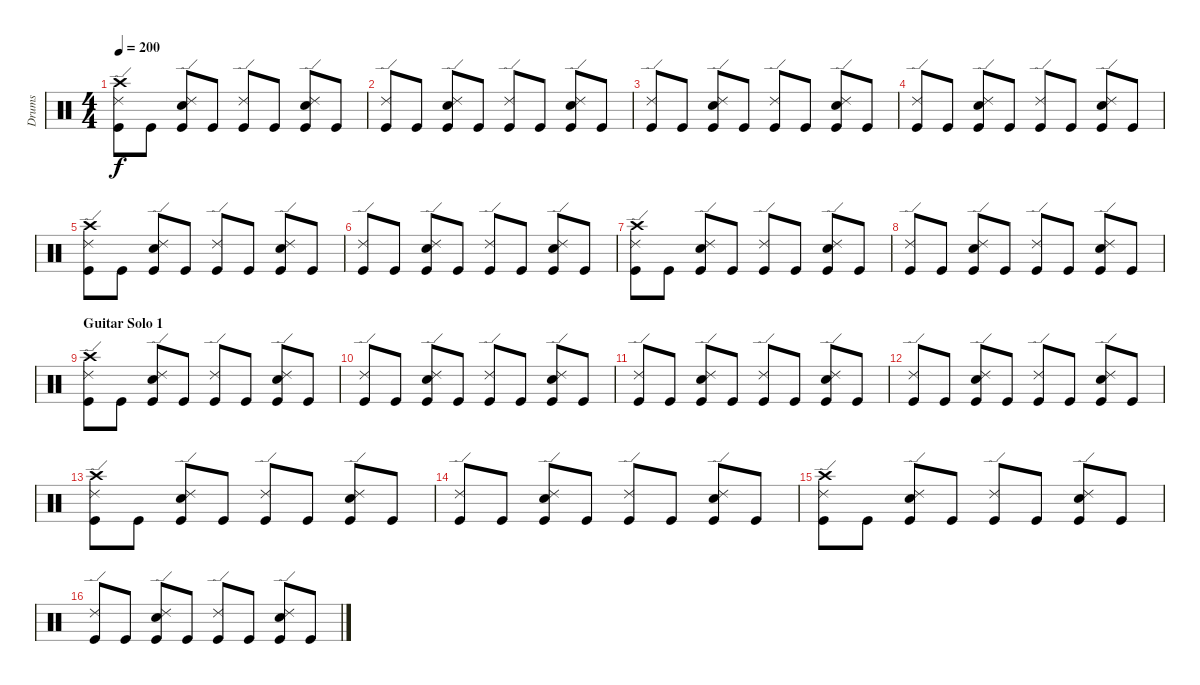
\track ("Drums" "Drums") {instrument percussion}
\staff {score}
\articulation defaults
\ts (4 4)
\tempo 200
\clef neutral
\ks c
("Crash high (hit)" "Ride (edge) 2" "Kick (hit)").8{dy f} "Kick (hit)".8 ("Ride (edge) 2" "Snare (hit) 2" "Kick (hit)").8 "Kick (hit)".8 ("Ride (edge) 2" "Kick (hit)").8 "Kick (hit)".8 ("Ride (edge) 2" "Snare (hit) 2" "Kick (hit)").8 "Kick (hit)".8 |
("Ride (edge) 2" "Kick (hit)").8 "Kick (hit)".8 ("Ride (edge) 2" "Snare (hit) 2" "Kick (hit)").8 "Kick (hit)".8 ("Ride (edge) 2" "Kick (hit)").8 "Kick (hit)".8 ("Ride (edge) 2" "Snare (hit) 2" "Kick (hit)").8 "Kick (hit)".8 |
("Ride (edge) 2" "Kick (hit)").8 "Kick (hit)".8 ("Ride (edge) 2" "Snare (hit) 2" "Kick (hit)").8 "Kick (hit)".8 ("Ride (edge) 2" "Kick (hit)").8 "Kick (hit)".8 ("Ride (edge) 2" "Snare (hit) 2" "Kick (hit)").8 "Kick (hit)".8 |
("Ride (edge) 2" "Kick (hit)").8 "Kick (hit)".8 ("Ride (edge) 2" "Snare (hit) 2" "Kick (hit)").8 "Kick (hit)".8 ("Ride (edge) 2" "Kick (hit)").8 "Kick (hit)".8 ("Ride (edge) 2" "Snare (hit) 2" "Kick (hit)").8 "Kick (hit)".8 |
("Crash high (hit)" "Ride (edge) 2" "Kick (hit)").8 "Kick (hit)".8 ("Ride (edge) 2" "Snare (hit) 2" "Kick (hit)").8 "Kick (hit)".8 ("Ride (edge) 2" "Kick (hit)").8 "Kick (hit)".8 ("Ride (edge) 2" "Snare (hit) 2" "Kick (hit)").8 "Kick (hit)".8 |
("Ride (edge) 2" "Kick (hit)").8 "Kick (hit)".8 ("Ride (edge) 2" "Snare (hit) 2" "Kick (hit)").8 "Kick (hit)".8 ("Ride (edge) 2" "Kick (hit)").8 "Kick (hit)".8 ("Ride (edge) 2" "Snare (hit) 2" "Kick (hit)").8 "Kick (hit)".8 |
("Crash high (hit)" "Ride (edge) 2" "Kick (hit)").8 "Kick (hit)".8 ("Ride (edge) 2" "Snare (hit) 2" "Kick (hit)").8 "Kick (hit)".8 ("Ride (edge) 2" "Kick (hit)").8 "Kick (hit)".8 ("Ride (edge) 2" "Snare (hit) 2" "Kick (hit)").8 "Kick (hit)".8 |
("Ride (edge) 2" "Kick (hit)").8 "Kick (hit)".8 ("Ride (edge) 2" "Snare (hit) 2" "Kick (hit)").8 "Kick (hit)".8 ("Ride (edge) 2" "Kick (hit)").8 "Kick (hit)".8 ("Ride (edge) 2" "Snare (hit) 2" "Kick (hit)").8 "Kick (hit)".8 |
\section ("" "Guitar Solo 1")
("Crash high (hit)" "Ride (edge) 2" "Kick (hit)").8 "Kick (hit)".8 ("Ride (edge) 2" "Snare (hit) 2" "Kick (hit)").8 "Kick (hit)".8 ("Ride (edge) 2" "Kick (hit)").8 "Kick (hit)".8 ("Ride (edge) 2" "Snare (hit) 2" "Kick (hit)").8 "Kick (hit)".8 |
("Ride (edge) 2" "Kick (hit)").8 "Kick (hit)".8 ("Ride (edge) 2" "Snare (hit) 2" "Kick (hit)").8 "Kick (hit)".8 ("Ride (edge) 2" "Kick (hit)").8 "Kick (hit)".8 ("Ride (edge) 2" "Snare (hit) 2" "Kick (hit)").8 "Kick (hit)".8 |
("Ride (edge) 2" "Kick (hit)").8 "Kick (hit)".8 ("Ride (edge) 2" "Snare (hit) 2" "Kick (hit)").8 "Kick (hit)".8 ("Ride (edge) 2" "Kick (hit)").8 "Kick (hit)".8 ("Ride (edge) 2" "Snare (hit) 2" "Kick (hit)").8 "Kick (hit)".8 |
("Ride (edge) 2" "Kick (hit)").8 "Kick (hit)".8 ("Ride (edge) 2" "Snare (hit) 2" "Kick (hit)").8 "Kick (hit)".8 ("Ride (edge) 2" "Kick (hit)").8 "Kick (hit)".8 ("Ride (edge) 2" "Snare (hit) 2" "Kick (hit)").8 "Kick (hit)".8 |
("Crash high (hit)" "Ride (edge) 2" "Kick (hit)").8 "Kick (hit)".8 ("Ride (edge) 2" "Snare (hit) 2" "Kick (hit)").8 "Kick (hit)".8 ("Ride (edge) 2" "Kick (hit)").8 "Kick (hit)".8 ("Ride (edge) 2" "Snare (hit) 2" "Kick (hit)").8 "Kick (hit)".8 |
("Ride (edge) 2" "Kick (hit)").8 "Kick (hit)".8 ("Ride (edge) 2" "Snare (hit) 2" "Kick (hit)").8 "Kick (hit)".8 ("Ride (edge) 2" "Kick (hit)").8 "Kick (hit)".8 ("Ride (edge) 2" "Snare (hit) 2" "Kick (hit)").8 "Kick (hit)".8 |
("Crash high (hit)" "Ride (edge) 2" "Kick (hit)").8 "Kick (hit)".8 ("Ride (edge) 2" "Snare (hit) 2" "Kick (hit)").8 "Kick (hit)".8 ("Ride (edge) 2" "Kick (hit)").8 "Kick (hit)".8 ("Ride (edge) 2" "Snare (hit) 2" "Kick (hit)").8 "Kick (hit)".8 |
("Ride (edge) 2" "Kick (hit)").8 "Kick (hit)".8 ("Ride (edge) 2" "Snare (hit) 2" "Kick (hit)").8 "Kick (hit)".8 ("Ride (edge) 2" "Kick (hit)").8 "Kick (hit)".8 ("Ride (edge) 2" "Snare (hit) 2" "Kick (hit)").8 "Kick (hit)".8
